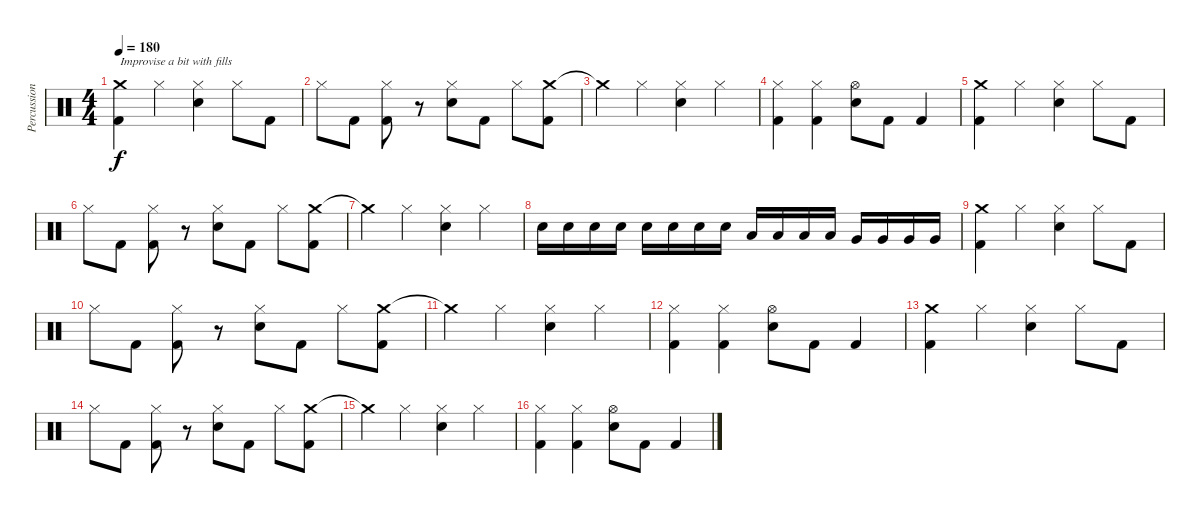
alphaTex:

\track ("Percussion" "Percussion") {instrument percussion}
\staff {score}
\articulation defaults
\ts (4 4)
\tempo 180
\clef neutral
\ks c
("Crash medium (hit)" "Kick (hit) 2").4{txt "Improvise a bit with fills" dy f} "Hi-Hat (closed)".4 ("Hi-Hat (closed)" "Snare (hit) 2").4 "Hi-Hat (closed)".8 "Kick (hit) 2".8 |
"Hi-Hat (closed)".8 "Kick (hit) 2".8 ("Hi-Hat (closed)" "Kick (hit) 2").8 r.8 ("Hi-Hat (closed)" "Snare (hit) 2").8 "Kick (hit) 2".8 "Hi-Hat (closed)".8 ("Crash medium (hit)" "Kick (hit) 2").8 |
"Crash medium (hit)"{t}.4 "Hi-Hat (closed)".4 ("Hi-Hat (closed)" "Snare (hit) 2").4 "Hi-Hat (closed)".4 |
("Hi-Hat (closed)" "Kick (hit) 2").4 ("Hi-Hat (closed)" "Kick (hit) 2").4 ("Hi-Hat (open)" "Snare (hit) 2").8 "Kick (hit) 2".8 "Kick (hit) 2".4 |
("Crash medium (hit)" "Kick (hit) 2").4 "Hi-Hat (closed)".4 ("Hi-Hat (closed)" "Snare (hit) 2").4 "Hi-Hat (closed)".8 "Kick (hit) 2".8 |
"Hi-Hat (closed)".8 "Kick (hit) 2".8 ("Hi-Hat (closed)" "Kick (hit) 2").8 r.8 ("Hi-Hat (closed)" "Snare (hit) 2").8 "Kick (hit) 2".8 "Hi-Hat (closed)".8 ("Crash medium (hit)" "Kick (hit) 2").8 |
"Crash medium (hit)"{t}.4 "Hi-Hat (closed)".4 ("Hi-Hat (closed)" "Snare (hit) 2").4 "Hi-Hat (closed)".4 |
"Snare (hit) 2".16 "Snare (hit) 2".16 "Snare (hit) 2".16 "Snare (hit) 2".16 "Snare (hit) 2".16 "Snare (hit) 2".16 "Snare (hit) 2".16 "Snare (hit) 2".16 "Low Tom (hit)".16 "Low Tom (hit)".16 "Low Tom (hit)".16 "Low Tom (hit)".16 "Very Low Tom (hit)".16 "Very Low Tom (hit)".16 "Very Low Tom (hit)".16 "Very Low Tom (hit)".16 |
("Crash medium (hit)" "Kick (hit) 2").4 "Hi-Hat (closed)".4 ("Hi-Hat (closed)" "Snare (hit) 2").4 "Hi-Hat (closed)".8 "Kick (hit) 2".8 |
"Hi-Hat (closed)".8 "Kick (hit) 2".8 ("Hi-Hat (closed)" "Kick (hit) 2").8 r.8 ("Hi-Hat (closed)" "Snare (hit) 2").8 "Kick (hit) 2".8 "Hi-Hat (closed)".8 ("Crash medium (hit)" "Kick (hit) 2").8 |
"Crash medium (hit)"{t}.4 "Hi-Hat (closed)".4 ("Hi-Hat (closed)" "Snare (hit) 2").4 "Hi-Hat (closed)".4 |
("Hi-Hat (closed)" "Kick (hit) 2").4 ("Hi-Hat (closed)" "Kick (hit) 2").4 ("Hi-Hat (open)" "Snare (hit) 2").8 "Kick (hit) 2".8 "Kick (hit) 2".4 |
("Crash medium (hit)" "Kick (hit) 2").4 "Hi-Hat (closed)".4 ("Hi-Hat (closed)" "Snare (hit) 2").4 "Hi-Hat (closed)".8 "Kick (hit) 2".8 |
"Hi-Hat (closed)".8 "Kick (hit) 2".8 ("Hi-Hat (closed)" "Kick (hit) 2").8 r.8 ("Hi-Hat (closed)" "Snare (hit) 2").8 "Kick (hit) 2".8 "Hi-Hat (closed)".8 ("Crash medium (hit)" "Kick (hit) 2").8 |
"Crash medium (hit)"{t}.4 "Hi-Hat (closed)".4 ("Hi-Hat (closed)" "Snare (hit) 2").4 "Hi-Hat (closed)".4 |
("Hi-Hat (closed)" "Kick (hit) 2").4 ("Hi-Hat (closed)" "Kick (hit) 2").4 ("Hi-Hat (open)" "Snare (hit) 2").8 "Kick (hit) 2".8 "Kick (hit) 2".4
